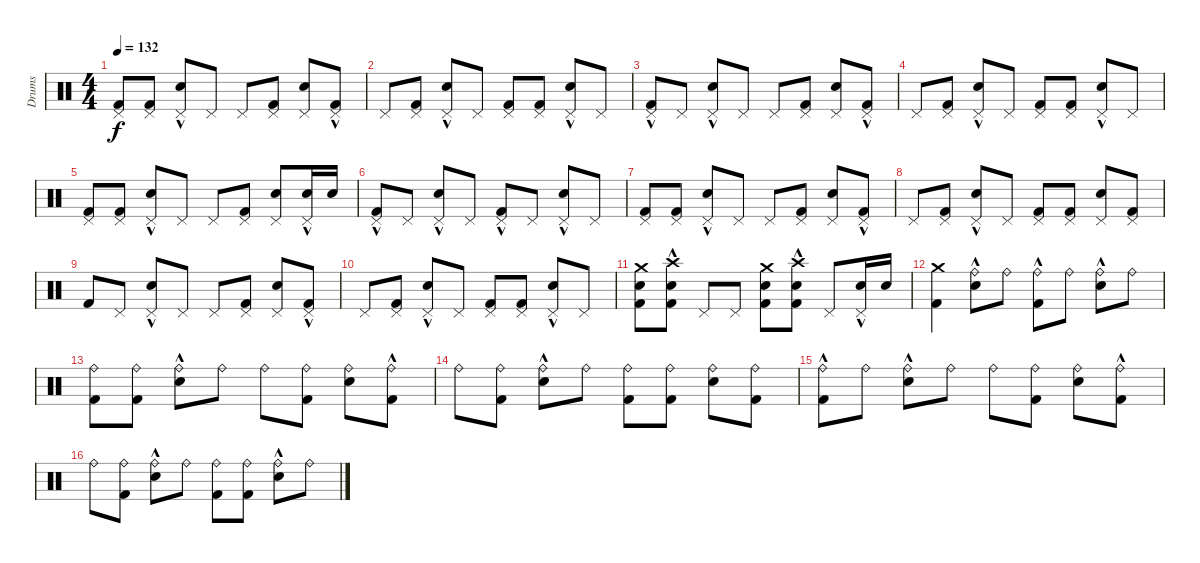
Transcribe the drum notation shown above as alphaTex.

\track ("Drums" "Drums") {instrument percussion}
\staff {score}
\articulation defaults
\ts (4 4)
\tempo 132
\clef neutral
\ks c
("Pedal Hi-Hat (hit)" "Kick (hit) 2").8{dy f} ("Pedal Hi-Hat (hit)" "Kick (hit) 2").8 ("Pedal Hi-Hat (hit)"{hac} "Snare (hit) 2").8 "Pedal Hi-Hat (hit)".8 "Pedal Hi-Hat (hit)".8 ("Pedal Hi-Hat (hit)" "Kick (hit) 2").8 ("Pedal Hi-Hat (hit)" "Snare (hit) 2").8 ("Pedal Hi-Hat (hit)"{hac} "Kick (hit) 2"{hac}).8 |
"Pedal Hi-Hat (hit)".8 ("Pedal Hi-Hat (hit)" "Kick (hit) 2").8 ("Pedal Hi-Hat (hit)"{hac} "Snare (hit) 2").8 "Pedal Hi-Hat (hit)".8 ("Pedal Hi-Hat (hit)" "Kick (hit) 2").8 ("Pedal Hi-Hat (hit)" "Kick (hit) 2").8 ("Pedal Hi-Hat (hit)"{hac} "Snare (hit) 2").8 "Pedal Hi-Hat (hit)".8 |
("Pedal Hi-Hat (hit)"{hac} "Kick (hit) 2").8 "Pedal Hi-Hat (hit)".8 ("Pedal Hi-Hat (hit)"{hac} "Snare (hit) 2").8 "Pedal Hi-Hat (hit)".8 "Pedal Hi-Hat (hit)".8 ("Pedal Hi-Hat (hit)" "Kick (hit) 2").8 ("Pedal Hi-Hat (hit)" "Snare (hit) 2").8 ("Pedal Hi-Hat (hit)"{hac} "Kick (hit) 2"{hac}).8 |
"Pedal Hi-Hat (hit)".8 ("Pedal Hi-Hat (hit)" "Kick (hit) 2").8 ("Pedal Hi-Hat (hit)"{hac} "Snare (hit) 2").8 "Pedal Hi-Hat (hit)".8 ("Pedal Hi-Hat (hit)" "Kick (hit) 2").8 ("Pedal Hi-Hat (hit)" "Kick (hit) 2").8 ("Pedal Hi-Hat (hit)"{hac} "Snare (hit) 2").8 "Pedal Hi-Hat (hit)".8 |
("Pedal Hi-Hat (hit)" "Kick (hit) 2").8 ("Pedal Hi-Hat (hit)" "Kick (hit) 2").8 ("Pedal Hi-Hat (hit)"{hac} "Snare (hit) 2").8 "Pedal Hi-Hat (hit)".8 "Pedal Hi-Hat (hit)".8 ("Pedal Hi-Hat (hit)" "Kick (hit) 2").8 ("Pedal Hi-Hat (hit)" "Snare (hit) 2").8 ("Pedal Hi-Hat (hit)"{hac} "Snare (hit) 2").16 "Snare (hit) 2".16 |
("Pedal Hi-Hat (hit)"{hac} "Kick (hit) 2").8 "Pedal Hi-Hat (hit)".8 ("Pedal Hi-Hat (hit)"{hac} "Snare (hit) 2").8 "Pedal Hi-Hat (hit)".8 ("Pedal Hi-Hat (hit)"{hac} "Kick (hit) 2").8 "Pedal Hi-Hat (hit)".8 ("Pedal Hi-Hat (hit)"{hac} "Snare (hit) 2").8 "Pedal Hi-Hat (hit)".8 |
("Pedal Hi-Hat (hit)" "Kick (hit) 2").8 ("Pedal Hi-Hat (hit)" "Kick (hit) 2").8 ("Pedal Hi-Hat (hit)"{hac} "Snare (hit) 2").8 "Pedal Hi-Hat (hit)".8 "Pedal Hi-Hat (hit)".8 ("Pedal Hi-Hat (hit)" "Kick (hit) 2").8 ("Pedal Hi-Hat (hit)" "Snare (hit) 2").8 ("Pedal Hi-Hat (hit)"{hac} "Kick (hit) 2"{hac}).8 |
"Pedal Hi-Hat (hit)".8 ("Pedal Hi-Hat (hit)" "Kick (hit) 2").8 ("Pedal Hi-Hat (hit)"{hac} "Snare (hit) 2").8 "Pedal Hi-Hat (hit)".8 ("Pedal Hi-Hat (hit)" "Kick (hit) 2").8 ("Pedal Hi-Hat (hit)" "Kick (hit) 2").8 ("Pedal Hi-Hat (hit)" "Snare (hit) 2").8 ("Pedal Hi-Hat (hit)" "Kick (hit) 2").8 |
"Kick (hit) 2".8 "Pedal Hi-Hat (hit)".8 ("Pedal Hi-Hat (hit)"{hac} "Snare (hit) 2").8 "Pedal Hi-Hat (hit)".8 "Pedal Hi-Hat (hit)".8 ("Pedal Hi-Hat (hit)" "Kick (hit) 2").8 ("Pedal Hi-Hat (hit)" "Snare (hit) 2").8 ("Pedal Hi-Hat (hit)"{hac} "Kick (hit) 2"{hac}).8 |
"Pedal Hi-Hat (hit)".8 ("Pedal Hi-Hat (hit)" "Kick (hit) 2").8 ("Pedal Hi-Hat (hit)"{hac} "Snare (hit) 2").8 "Pedal Hi-Hat (hit)".8 ("Pedal Hi-Hat (hit)" "Kick (hit) 2").8 ("Pedal Hi-Hat (hit)" "Kick (hit) 2").8 ("Pedal Hi-Hat (hit)"{hac} "Snare (hit) 2").8 "Pedal Hi-Hat (hit)".8 |
("Crash medium (hit)" "Snare (hit) 2" "Kick (hit) 2").8 ("Crash high (hit)"{hac} "Snare (hit) 2" "Kick (hit) 2").8 "Pedal Hi-Hat (hit)".8 "Pedal Hi-Hat (hit)".8 ("Crash medium (hit)" "Snare (hit) 2" "Kick (hit) 2").8 ("Crash high (hit)"{hac} "Snare (hit) 2" "Kick (hit) 2").8 "Pedal Hi-Hat (hit)".8 ("Pedal Hi-Hat (hit)"{hac} "Snare (hit) 2").16 "Snare (hit) 2".16 |
("Crash medium (hit)" "Kick (hit) 2").4 ("Ride (bell)"{hac} "Snare (hit) 2").8 "Ride (bell)".8 ("Ride (bell)"{hac} "Kick (hit) 2").8 "Ride (bell)".8 ("Ride (bell)"{hac} "Snare (hit) 2").8 "Ride (bell)".8 |
("Ride (bell)" "Kick (hit) 2").8 ("Ride (bell)" "Kick (hit) 2").8 ("Ride (bell)"{hac} "Snare (hit) 2").8 "Ride (bell)".8 "Ride (bell)".8 ("Ride (bell)" "Kick (hit) 2").8 ("Ride (bell)" "Snare (hit) 2").8 ("Ride (bell)"{hac} "Kick (hit) 2"{hac}).8 |
"Ride (bell)".8 ("Ride (bell)" "Kick (hit) 2").8 ("Ride (bell)"{hac} "Snare (hit) 2").8 "Ride (bell)".8 ("Ride (bell)" "Kick (hit) 2").8 ("Ride (bell)" "Kick (hit) 2").8 ("Ride (bell)" "Snare (hit) 2").8 ("Ride (bell)" "Kick (hit) 2").8 |
("Ride (bell)"{hac} "Kick (hit) 2").8 "Ride (bell)".8 ("Ride (bell)"{hac} "Snare (hit) 2").8 "Ride (bell)".8 "Ride (bell)".8 ("Ride (bell)" "Kick (hit) 2").8 ("Ride (bell)" "Snare (hit) 2").8 ("Ride (bell)"{hac} "Kick (hit) 2"{hac}).8 |
"Ride (bell)".8 ("Ride (bell)" "Kick (hit) 2").8 ("Ride (bell)"{hac} "Snare (hit) 2").8 "Ride (bell)".8 ("Ride (bell)" "Kick (hit) 2").8 ("Ride (bell)" "Kick (hit) 2").8 ("Ride (bell)"{hac} "Snare (hit) 2").8 "Ride (bell)".8
